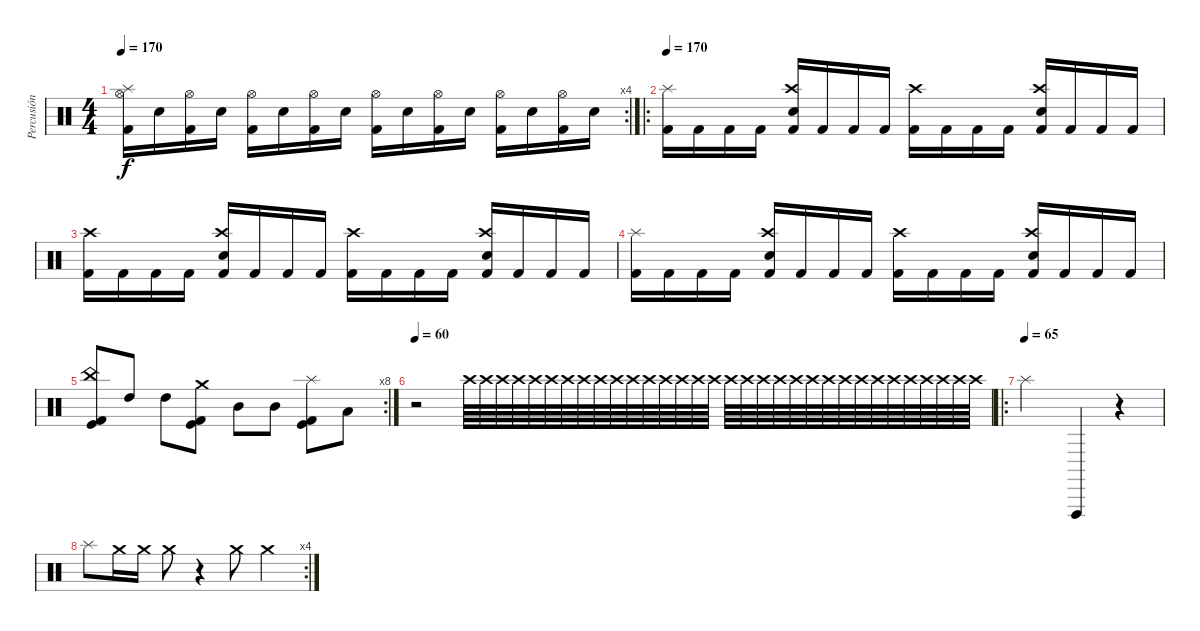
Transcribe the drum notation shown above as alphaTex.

\track ("Percusión CARLOS DARK" "Percusión ") {instrument percussion}
\staff {score}
\articulation defaults
\rc 4
\ts (4 4)
\tempo 170
\clef neutral
\ks c
("Splash (hit)" "Hi-Hat (open)" "Kick (hit) 2").16{dy f} "Electric Snare (hit)".16 ("Hi-Hat (open)" "Kick (hit) 2").16 "Electric Snare (hit)".16 ("Hi-Hat (open)" "Kick (hit) 2").16 "Electric Snare (hit)".16 ("Hi-Hat (open)" "Kick (hit) 2").16 "Electric Snare (hit)".16 ("Hi-Hat (open)" "Kick (hit) 2").16 "Electric Snare (hit)".16 ("Hi-Hat (open)" "Kick (hit) 2").16 "Electric Snare (hit)".16 ("Hi-Hat (open)" "Kick (hit) 2").16 "Electric Snare (hit)".16 ("Hi-Hat (open)" "Kick (hit) 2").16 "Electric Snare (hit)".16 |
\ro
\tempo 170
("Splash (hit)" "Kick (hit) 2").16 "Kick (hit) 2".16 "Kick (hit) 2".16 "Kick (hit) 2".16 ("Crash high (hit)" "Snare (hit) 2" "Kick (hit) 2").16 "Kick (hit) 2".16 "Kick (hit) 2".16 "Kick (hit) 2".16 ("Crash high (hit)" "Kick (hit) 2").16 "Kick (hit) 2".16 "Kick (hit) 2".16 "Kick (hit) 2".16 ("Crash high (hit)" "Snare (hit) 2" "Kick (hit) 2").16 "Kick (hit) 2".16 "Kick (hit) 2".16 "Kick (hit) 2".16 |
("Crash high (hit)" "Kick (hit) 2").16 "Kick (hit) 2".16 "Kick (hit) 2".16 "Kick (hit) 2".16 ("Crash high (hit)" "Snare (hit) 2" "Kick (hit) 2").16 "Kick (hit) 2".16 "Kick (hit) 2".16 "Kick (hit) 2".16 ("Crash high (hit)" "Kick (hit) 2").16 "Kick (hit) 2".16 "Kick (hit) 2".16 "Kick (hit) 2".16 ("Crash high (hit)" "Snare (hit) 2" "Kick (hit) 2").16 "Kick (hit) 2".16 "Kick (hit) 2".16 "Kick (hit) 2".16 |
("Splash (hit)" "Kick (hit) 2").16 "Kick (hit) 2".16 "Kick (hit) 2".16 "Kick (hit) 2".16 ("Crash high (hit)" "Snare (hit) 2" "Kick (hit) 2").16 "Kick (hit) 2".16 "Kick (hit) 2".16 "Kick (hit) 2".16 ("Crash high (hit)" "Kick (hit) 2").16 "Kick (hit) 2".16 "Kick (hit) 2".16 "Kick (hit) 2".16 ("Crash high (hit)" "Snare (hit) 2" "Kick (hit) 2").16 "Kick (hit) 2".16 "Kick (hit) 2".16 "Kick (hit) 2".16 |
\rc 8
("China (hit)" "Kick (hit) 2" "Kick (hit)").8 "High Tom (hit)".8 "High Tom (hit)".8 ("Crash medium (hit)" "Kick (hit) 2" "Kick (hit)").8 "Mid Tom (hit)".8 "Mid Tom (hit)".8 ("Splash (hit)" "Kick (hit) 2" "Kick (hit)").8 "Low Tom (hit)".8 |
\tempo 60
r.2 "Crash high (hit)".64 "Crash high (hit)".64 "Crash high (hit)".64 "Crash high (hit)".64 "Crash high (hit)".64 "Crash high (hit)".64 "Crash high (hit)".64 "Crash high (hit)".64 "Crash high (hit)".64 "Crash high (hit)".64 "Crash high (hit)".64 "Crash high (hit)".64 "Crash high (hit)".64 "Crash high (hit)".64 "Crash high (hit)".64 "Crash high (hit)".64 "Crash high (hit)".64 "Crash high (hit)".64 "Crash high (hit)".64 "Crash high (hit)".64 "Crash high (hit)".64 "Crash high (hit)".64 "Crash high (hit)".64 "Crash high (hit)".64 "Crash high (hit)".64 "Crash high (hit)".64 "Crash high (hit)".64 "Crash high (hit)".64 "Crash high (hit)".64 "Crash high (hit)".64 "Crash high (hit)".64 "Crash high (hit)".64 |
\ro
\tempo (65)
"Splash (hit)".2 "Vibraslap (hit)".4 r.4 |
\rc 4 "Splash (hit)".8 "Crash medium (hit)".16 "Crash medium (hit)".16 "Crash medium (hit)".8
r.4 "Crash medium (hit)".8 "Crash medium (hit)".4
